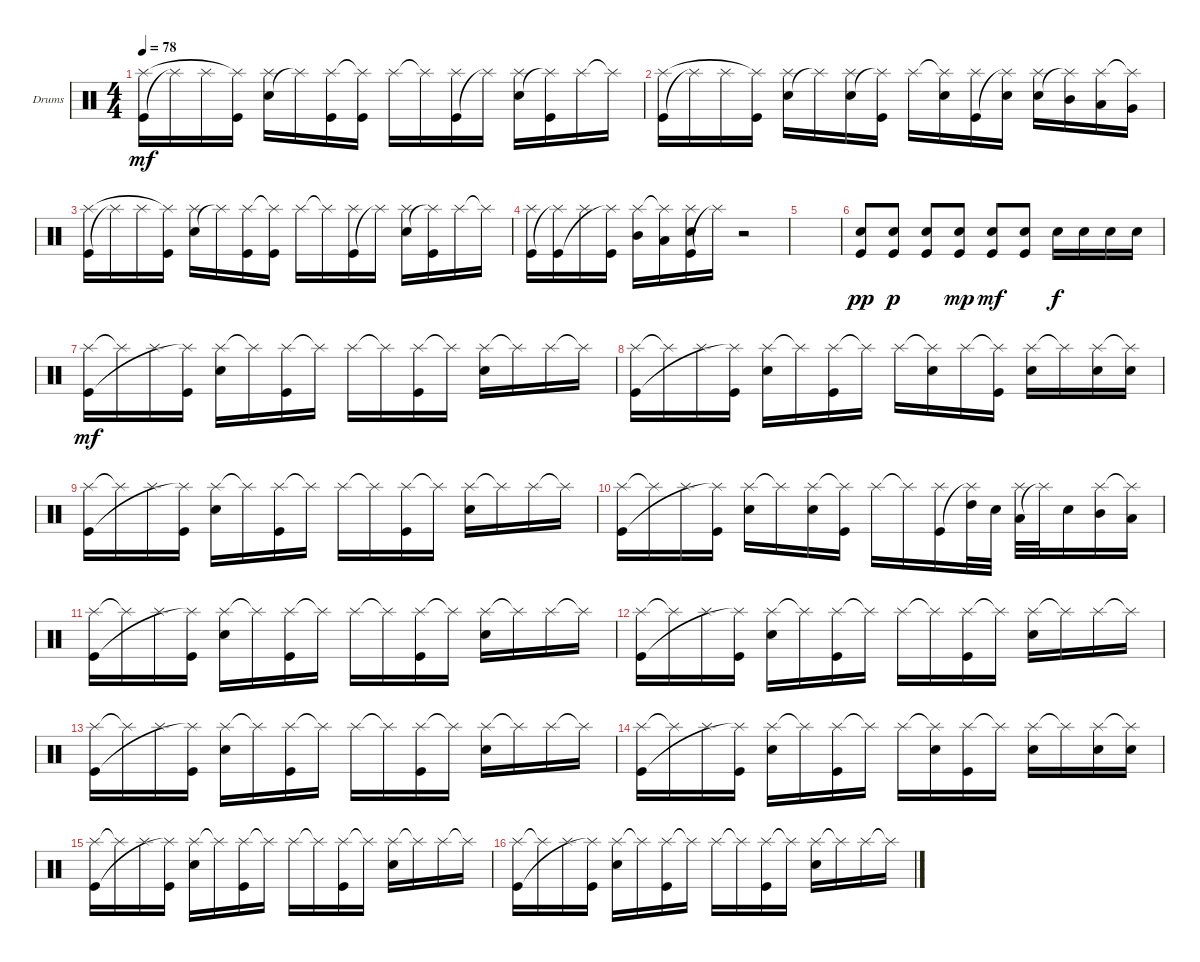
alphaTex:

\bracketExtendMode groupsimilarinstruments
\firstSystemTrackNameOrientation horizontal
\otherSystemsTrackNameOrientation horizontal
\track ("Drumkit" "Drums") {instrument percussion}
\staff {score}
\articulation defaults
\ts (4 4)
\tempo 78
\clef neutral
\ks c
("Kick (hit)" "Splash (hit)").16{dy mf} "Splash (hit)"{t}.16 "Splash (hit)".16 ("Kick (hit)" "Splash (hit)"{t}).16 ("Snare (hit) 2" "Splash (hit)").16 "Splash (hit)"{t}.16 ("Kick (hit)" "Splash (hit)").16 ("Kick (hit)" "Splash (hit)"{t}).16 "Splash (hit)".16 "Splash (hit)"{t}.16 ("Kick (hit)" "Splash (hit)").16 "Splash (hit)"{t}.16 ("Splash (hit)" "Snare (hit) 2").16 ("Kick (hit)" "Splash (hit)"{t}).16 "Splash (hit)".16 "Splash (hit)"{t}.16 |
("Kick (hit)" "Splash (hit)").16 "Splash (hit)"{t}.16 "Splash (hit)".16 ("Kick (hit)" "Splash (hit)"{t}).16 ("Snare (hit) 2" "Splash (hit)").16 "Splash (hit)"{t}.16 ("Splash (hit)" "Snare (hit) 2").16 ("Kick (hit)" "Splash (hit)"{t}).16 "Splash (hit)".16 ("Splash (hit)"{t} "Snare (hit) 2").16 ("Kick (hit)" "Splash (hit)").16 ("Splash (hit)"{t} "Snare (hit) 2").16 ("Snare (hit) 2" "Splash (hit)").16 ("Splash (hit)"{t} "Mid Tom (hit)").16 ("Splash (hit)" "Low Tom (hit)").16 ("Splash (hit)"{t} "Very Low Tom (hit)").16 |
("Kick (hit)" "Splash (hit)").16 "Splash (hit)"{t}.16 "Splash (hit)".16 ("Kick (hit)" "Splash (hit)"{t}).16 ("Snare (hit) 2" "Splash (hit)").16 "Splash (hit)"{t}.16 ("Kick (hit)" "Splash (hit)").16 ("Kick (hit)" "Splash (hit)"{t}).16 "Splash (hit)".16 "Splash (hit)"{t}.16 ("Kick (hit)" "Splash (hit)").16 "Splash (hit)"{t}.16 ("Splash (hit)" "Snare (hit) 2").16 ("Kick (hit)" "Splash (hit)"{t}).16 "Splash (hit)".16 "Splash (hit)"{t}.16 |
("Kick (hit)" "Splash (hit)").16 ("Splash (hit)"{t} "Kick (hit)").16 "Splash (hit)".16 ("Kick (hit)" "Splash (hit)"{t}).16 ("Splash (hit)" "Mid Tom (hit)").16 ("Splash (hit)"{t} "Low Tom (hit)").16 ("Kick (hit)" "Splash (hit)" "Snare (hit) 2").16 "Splash (hit)"{t}.16 r.2 |
|
("Kick (hit)" "Snare (hit) 2").8{dy pp} ("Kick (hit)" "Snare (hit) 2").8{dy p} ("Kick (hit)" "Snare (hit) 2").8 ("Kick (hit)" "Snare (hit) 2").8{dy mp} ("Kick (hit)" "Snare (hit) 2").8{dy mf} ("Kick (hit)" "Snare (hit) 2").8 "Snare (hit) 2".16{dy f} "Snare (hit) 2".16 "Snare (hit) 2".16 "Snare (hit) 2".16 |
("Splash (hit)" "Kick (hit)").16{dy mf} "Splash (hit)"{t}.16 "Splash (hit)".16 ("Kick (hit)" "Splash (hit)"{t}).16 ("Splash (hit)" "Snare (hit) 2").16 "Splash (hit)"{t}.16 ("Splash (hit)" "Kick (hit)").16 "Splash (hit)"{t}.16 "Splash (hit)".16 "Splash (hit)"{t}.16 ("Splash (hit)" "Kick (hit)").16 "Splash (hit)"{t}.16 ("Splash (hit)" "Snare (hit) 2").16 "Splash (hit)"{t}.16 "Splash (hit)".16 "Splash (hit)"{t}.16 |
("Splash (hit)" "Kick (hit)").16 "Splash (hit)"{t}.16 "Splash (hit)".16 ("Kick (hit)" "Splash (hit)"{t}).16 ("Splash (hit)" "Snare (hit) 2").16 "Splash (hit)"{t}.16 ("Splash (hit)" "Kick (hit)").16 "Splash (hit)"{t}.16 "Splash (hit)".16 ("Splash (hit)"{t} "Snare (hit) 2").16 "Splash (hit)".16 ("Splash (hit)"{t} "Kick (hit)").16 ("Splash (hit)" "Snare (hit) 2").16 "Splash (hit)"{t}.16 ("Splash (hit)" "Snare (hit) 2").16 ("Splash (hit)"{t} "Snare (hit) 2").16 |
("Splash (hit)" "Kick (hit)").16 "Splash (hit)"{t}.16 "Splash (hit)".16 ("Kick (hit)" "Splash (hit)"{t}).16 ("Splash (hit)" "Snare (hit) 2").16 "Splash (hit)"{t}.16 ("Splash (hit)" "Kick (hit)").16 "Splash (hit)"{t}.16 "Splash (hit)".16 "Splash (hit)"{t}.16 ("Splash (hit)" "Kick (hit)").16 "Splash (hit)"{t}.16 ("Splash (hit)" "Snare (hit) 2").16 "Splash (hit)"{t}.16 "Splash (hit)".16 "Splash (hit)"{t}.16 |
("Splash (hit)" "Kick (hit)").16 "Splash (hit)"{t}.16 "Splash (hit)".16 ("Kick (hit)" "Splash (hit)"{t}).16 ("Splash (hit)" "Snare (hit) 2").16 "Splash (hit)"{t}.16 ("Splash (hit)" "Snare (hit) 2").16 ("Splash (hit)"{t} "Kick (hit)").16 "Splash (hit)".16 "Splash (hit)"{t}.16 ("Splash (hit)" "Kick (hit)").16 ("High Tom (hit)" "Splash (hit)"{t}).32 "Snare (hit) 2".32 ("Low Tom (hit)" "Splash (hit)").32 "Splash (hit)"{t}.32 "Snare (hit) 2".16 ("Mid Tom (hit)" "Splash (hit)").16 ("Low Tom (hit)" "Splash (hit)"{t}).16 |
("Splash (hit)" "Kick (hit)").16 "Splash (hit)"{t}.16 "Splash (hit)".16 ("Kick (hit)" "Splash (hit)"{t}).16 ("Splash (hit)" "Snare (hit) 2").16 "Splash (hit)"{t}.16 ("Splash (hit)" "Kick (hit)").16 "Splash (hit)"{t}.16 "Splash (hit)".16 "Splash (hit)"{t}.16 ("Splash (hit)" "Kick (hit)").16 "Splash (hit)"{t}.16 ("Splash (hit)" "Snare (hit) 2").16 "Splash (hit)"{t}.16 "Splash (hit)".16 "Splash (hit)"{t}.16 |
("Splash (hit)" "Kick (hit)").16 "Splash (hit)"{t}.16 "Splash (hit)".16 ("Kick (hit)" "Splash (hit)"{t}).16 ("Splash (hit)" "Snare (hit) 2").16 "Splash (hit)"{t}.16 ("Splash (hit)" "Kick (hit)").16 "Splash (hit)"{t}.16 "Splash (hit)".16 "Splash (hit)"{t}.16 ("Splash (hit)" "Kick (hit)").16 "Splash (hit)"{t}.16 ("Splash (hit)" "Snare (hit) 2").16 "Splash (hit)"{t}.16 "Splash (hit)".16 "Splash (hit)"{t}.16 |
("Splash (hit)" "Kick (hit)").16 "Splash (hit)"{t}.16 "Splash (hit)".16 ("Kick (hit)" "Splash (hit)"{t}).16 ("Splash (hit)" "Snare (hit) 2").16 "Splash (hit)"{t}.16 ("Splash (hit)" "Kick (hit)").16 "Splash (hit)"{t}.16 "Splash (hit)".16 "Splash (hit)"{t}.16 ("Splash (hit)" "Kick (hit)").16 "Splash (hit)"{t}.16 ("Splash (hit)" "Snare (hit) 2").16 "Splash (hit)"{t}.16 "Splash (hit)".16 "Splash (hit)"{t}.16 |
("Splash (hit)" "Kick (hit)").16 "Splash (hit)"{t}.16 "Splash (hit)".16 ("Kick (hit)" "Splash (hit)"{t}).16 ("Splash (hit)" "Snare (hit) 2").16 "Splash (hit)"{t}.16 ("Splash (hit)" "Kick (hit)").16 "Splash (hit)"{t}.16 "Splash (hit)".16 ("Splash (hit)"{t} "Snare (hit) 2").16 ("Splash (hit)" "Kick (hit)").16 "Splash (hit)"{t}.16 ("Splash (hit)" "Snare (hit) 2").16 "Splash (hit)"{t}.16 ("Splash (hit)" "Snare (hit) 2").16 ("Splash (hit)"{t} "Snare (hit) 2").16 |
("Splash (hit)" "Kick (hit)").16 "Splash (hit)"{t}.16 "Splash (hit)".16 ("Kick (hit)" "Splash (hit)"{t}).16 ("Splash (hit)" "Snare (hit) 2").16 "Splash (hit)"{t}.16 ("Splash (hit)" "Kick (hit)").16 "Splash (hit)"{t}.16 "Splash (hit)".16 "Splash (hit)"{t}.16 ("Splash (hit)" "Kick (hit)").16 "Splash (hit)"{t}.16 ("Splash (hit)" "Snare (hit) 2").16 "Splash (hit)"{t}.16 "Splash (hit)".16 "Splash (hit)"{t}.16 |
("Splash (hit)" "Kick (hit)").16 "Splash (hit)"{t}.16 "Splash (hit)".16 ("Kick (hit)" "Splash (hit)"{t}).16 ("Splash (hit)" "Snare (hit) 2").16 "Splash (hit)"{t}.16 ("Splash (hit)" "Kick (hit)").16 "Splash (hit)"{t}.16 "Splash (hit)".16 "Splash (hit)"{t}.16 ("Splash (hit)" "Kick (hit)").16 "Splash (hit)"{t}.16 ("Splash (hit)" "Snare (hit) 2").16 "Splash (hit)"{t}.16 "Splash (hit)".16 "Splash (hit)"{t}.16
